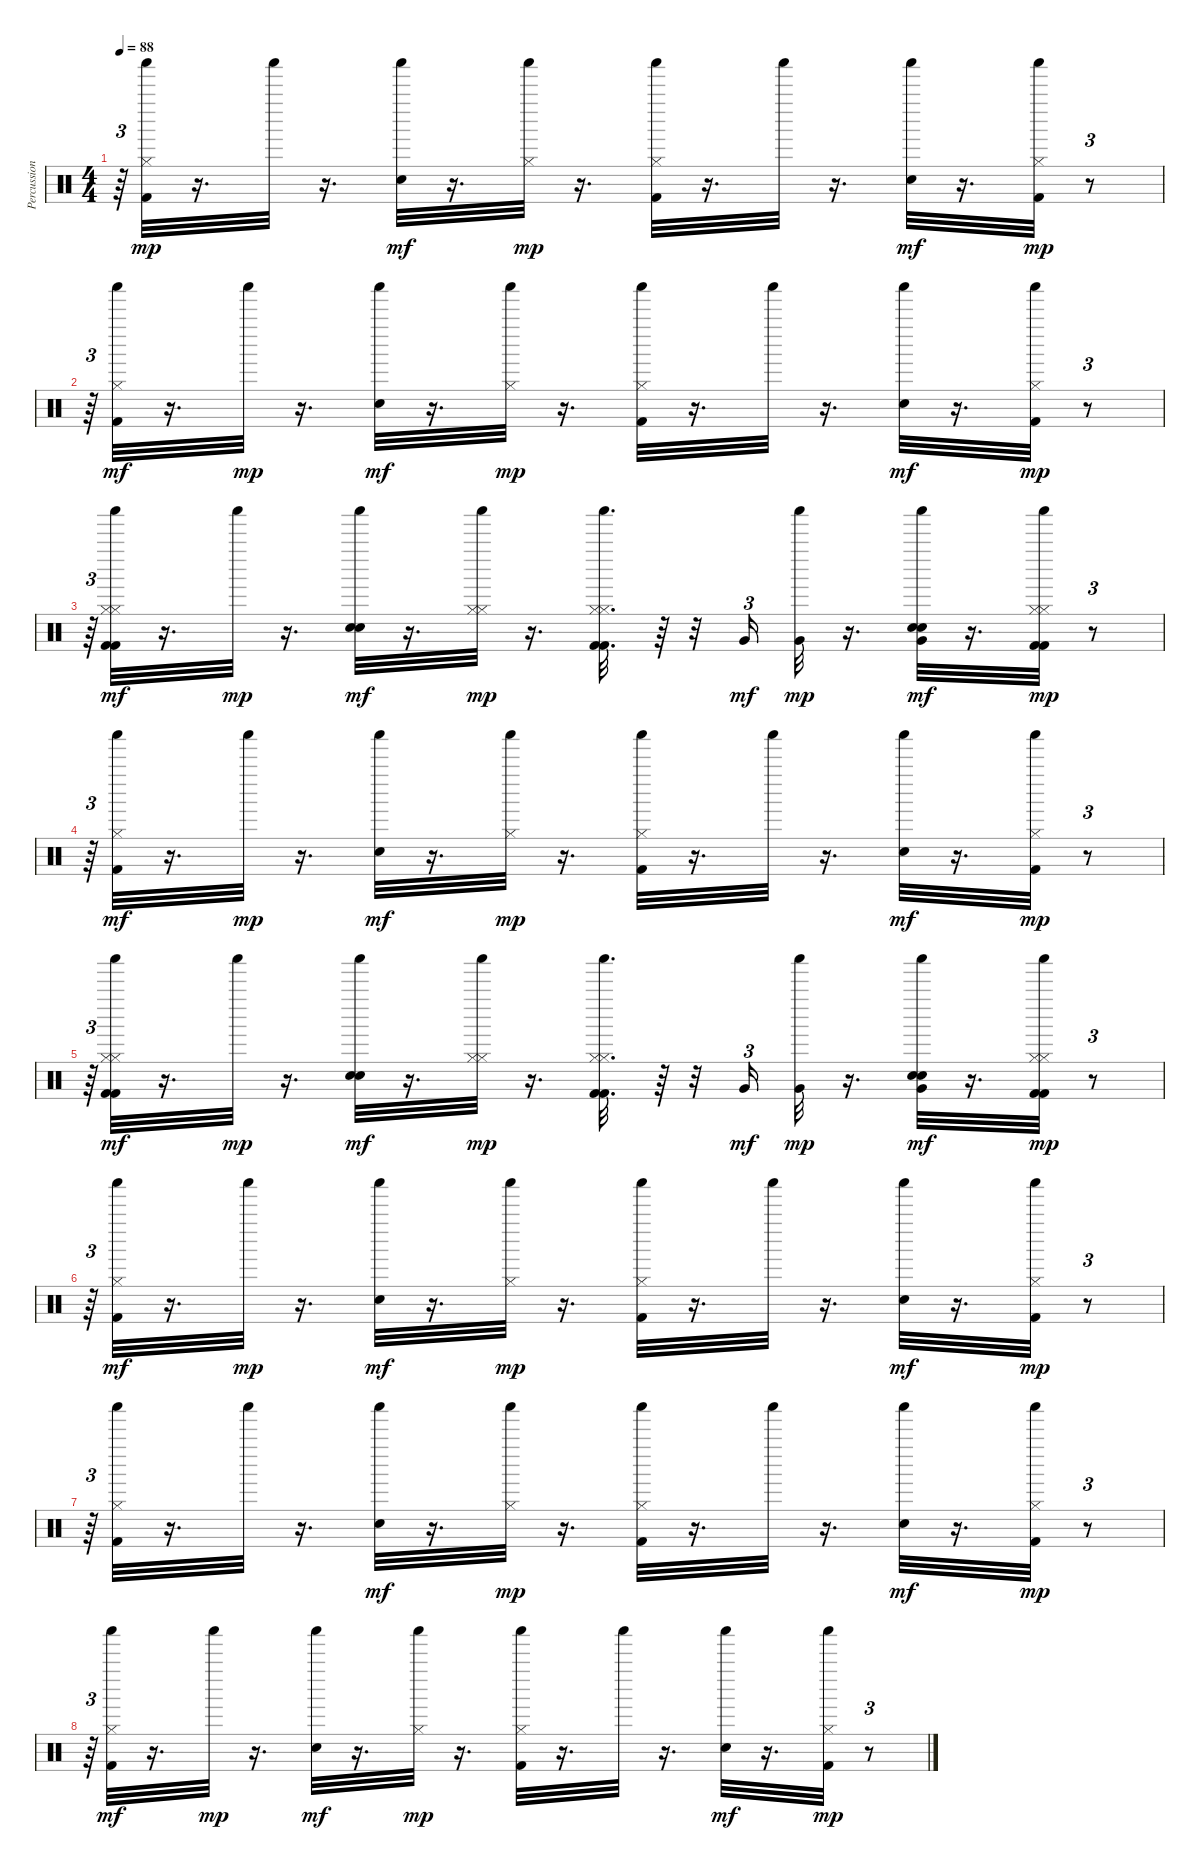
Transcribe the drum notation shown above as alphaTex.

\track ("Percussion" "Percussion") {instrument percussion}
\staff {score}
\articulation defaults
\ts (4 4)
\tempo 88
\clef neutral
\ks c
r.64{tu (3 2) dy mp} ("Kick (hit) 2" "Shaker (hit)" "Hi-Hat (closed)").32 r.16{d} "Shaker (hit)".32 r.16{d} ("Shaker (hit)" "Snare (hit) 2").32{dy mf} r.16{d} ("Shaker (hit)" "Hi-Hat (closed)").32{dy mp} r.16{d} ("Kick (hit) 2" "Shaker (hit)" "Hi-Hat (closed)").32 r.16{d} "Shaker (hit)".32 r.16{d} ("Shaker (hit)" "Snare (hit) 2").32{dy mf} r.16{d} ("Kick (hit) 2" "Shaker (hit)" "Hi-Hat (closed)").32{dy mp} r.8{tu (3 2)} |
r.64{tu (3 2)} ("Hi-Hat (closed)" "Shaker (hit)" "Kick (hit) 2").32{dy mf} r.16{d} "Shaker (hit)".32{dy mp} r.16{d} ("Shaker (hit)" "Snare (hit) 2").32{dy mf} r.16{d} ("Shaker (hit)" "Hi-Hat (closed)").32{dy mp} r.16{d} ("Kick (hit) 2" "Shaker (hit)" "Hi-Hat (closed)").32 r.16{d} "Shaker (hit)".32 r.16{d} ("Shaker (hit)" "Snare (hit) 2").32{dy mf} r.16{d} ("Kick (hit) 2" "Shaker (hit)" "Hi-Hat (closed)").32{dy mp} r.8{tu (3 2)} |
r.64{tu (3 2)} ("Kick (hit) 2" "Shaker (hit)" "Hi-Hat (closed)" "Hi-Hat (closed)" "Kick (hit) 2").32{dy mf} r.16{d} "Shaker (hit)".32{dy mp} r.16{d} ("Shaker (hit)" "Snare (hit) 2" "Snare (hit) 2").32{dy mf} r.16{d} ("Shaker (hit)" "Hi-Hat (closed)" "Hi-Hat (closed)").32{dy mp} r.16{d} ("Kick (hit) 2" "Shaker (hit)" "Hi-Hat (closed)" "Kick (hit) 2" "Hi-Hat (closed)").32{d} r.64 r.32 "Very Low Tom (hit)".16{tu (3 2) dy mf} ("Shaker (hit)" "Very Low Tom (hit)").32{dy mp} r.16{d} ("Shaker (hit)" "Snare (hit) 2" "Snare (hit) 2" "Very Low Tom (hit)").32{dy mf} r.16{d} ("Kick (hit) 2" "Shaker (hit)" "Hi-Hat (closed)" "Kick (hit) 2" "Hi-Hat (closed)").32{dy mp} r.8{tu (3 2)} |
r.64{tu (3 2)} ("Hi-Hat (closed)" "Shaker (hit)" "Kick (hit) 2").32{dy mf} r.16{d} "Shaker (hit)".32{dy mp} r.16{d} ("Shaker (hit)" "Snare (hit) 2").32{dy mf} r.16{d} ("Shaker (hit)" "Hi-Hat (closed)").32{dy mp} r.16{d} ("Kick (hit) 2" "Shaker (hit)" "Hi-Hat (closed)").32 r.16{d} "Shaker (hit)".32 r.16{d} ("Shaker (hit)" "Snare (hit) 2").32{dy mf} r.16{d} ("Kick (hit) 2" "Shaker (hit)" "Hi-Hat (closed)").32{dy mp} r.8{tu (3 2)} |
r.64{tu (3 2)} ("Kick (hit) 2" "Shaker (hit)" "Hi-Hat (closed)" "Hi-Hat (closed)" "Kick (hit) 2").32{dy mf} r.16{d} "Shaker (hit)".32{dy mp} r.16{d} ("Shaker (hit)" "Snare (hit) 2" "Snare (hit) 2").32{dy mf} r.16{d} ("Shaker (hit)" "Hi-Hat (closed)" "Hi-Hat (closed)").32{dy mp} r.16{d} ("Kick (hit) 2" "Shaker (hit)" "Hi-Hat (closed)" "Kick (hit) 2" "Hi-Hat (closed)").32{d} r.64 r.32 "Very Low Tom (hit)".16{tu (3 2) dy mf} ("Shaker (hit)" "Very Low Tom (hit)").32{dy mp} r.16{d} ("Shaker (hit)" "Snare (hit) 2" "Snare (hit) 2" "Very Low Tom (hit)").32{dy mf} r.16{d} ("Kick (hit) 2" "Shaker (hit)" "Hi-Hat (closed)" "Kick (hit) 2" "Hi-Hat (closed)").32{dy mp} r.8{tu (3 2)} |
r.64{tu (3 2)} ("Hi-Hat (closed)" "Shaker (hit)" "Kick (hit) 2").32{dy mf} r.16{d} "Shaker (hit)".32{dy mp} r.16{d} ("Shaker (hit)" "Snare (hit) 2").32{dy mf} r.16{d} ("Shaker (hit)" "Hi-Hat (closed)").32{dy mp} r.16{d} ("Kick (hit) 2" "Shaker (hit)" "Hi-Hat (closed)").32 r.16{d} "Shaker (hit)".32 r.16{d} ("Shaker (hit)" "Snare (hit) 2").32{dy mf} r.16{d} ("Kick (hit) 2" "Shaker (hit)" "Hi-Hat (closed)").32{dy mp} r.8{tu (3 2)} |
r.64{tu (3 2)} ("Kick (hit) 2" "Shaker (hit)" "Hi-Hat (closed)").32 r.16{d} "Shaker (hit)".32 r.16{d} ("Shaker (hit)" "Snare (hit) 2").32{dy mf} r.16{d} ("Shaker (hit)" "Hi-Hat (closed)").32{dy mp} r.16{d} ("Kick (hit) 2" "Shaker (hit)" "Hi-Hat (closed)").32 r.16{d} "Shaker (hit)".32 r.16{d} ("Shaker (hit)" "Snare (hit) 2").32{dy mf} r.16{d} ("Kick (hit) 2" "Shaker (hit)" "Hi-Hat (closed)").32{dy mp} r.8{tu (3 2)} |
r.64{tu (3 2)} ("Hi-Hat (closed)" "Shaker (hit)" "Kick (hit) 2").32{dy mf} r.16{d} "Shaker (hit)".32{dy mp} r.16{d} ("Shaker (hit)" "Snare (hit) 2").32{dy mf} r.16{d} ("Shaker (hit)" "Hi-Hat (closed)").32{dy mp} r.16{d} ("Kick (hit) 2" "Shaker (hit)" "Hi-Hat (closed)").32 r.16{d} "Shaker (hit)".32 r.16{d} ("Shaker (hit)" "Snare (hit) 2").32{dy mf} r.16{d} ("Kick (hit) 2" "Shaker (hit)" "Hi-Hat (closed)").32{dy mp} r.8{tu (3 2)}
